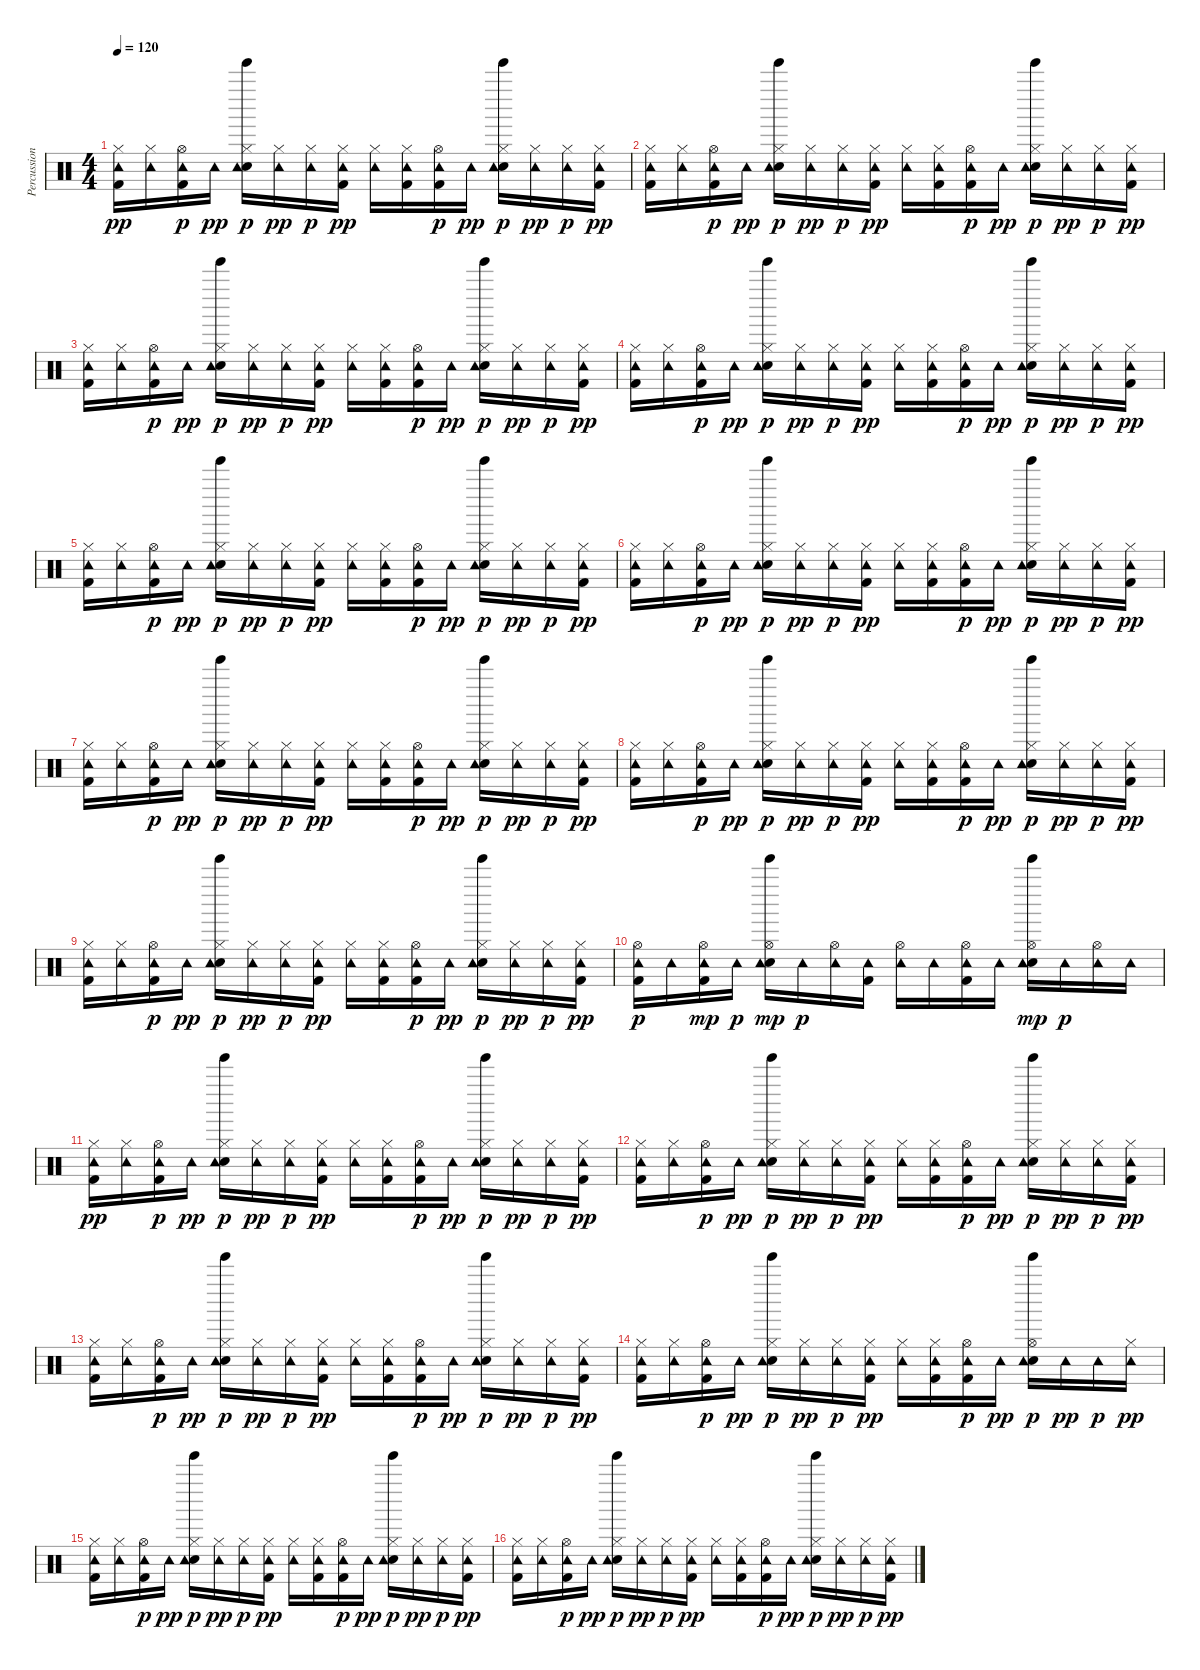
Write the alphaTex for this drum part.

\track ("Percussioni" "Percussion") {instrument percussion}
\staff {score}
\articulation defaults
\ts (4 4)
\tempo 120
\clef neutral
\ks c
("Kick (hit) 2" "Hi-Hat (closed)" "Tambourine (hit)").16{dy pp} ("Hi-Hat (closed)" "Tambourine (hit)").16 ("Kick (hit) 2" "Hi-Hat (open)" "Tambourine (hit)").16{dy p} "Tambourine (hit)".16{dy pp} ("Electric Snare (hit)" "Hi-Hat (closed)" "Tambourine (hit)" "Tinkle Bell (hit)").16{dy p} ("Hi-Hat (closed)" "Tambourine (hit)").16{dy pp} ("Hi-Hat (closed)" "Tambourine (hit)").16{dy p} ("Kick (hit) 2" "Hi-Hat (closed)" "Tambourine (hit)").16{dy pp} ("Hi-Hat (closed)" "Tambourine (hit)").16 ("Kick (hit) 2" "Hi-Hat (closed)" "Tambourine (hit)").16 ("Kick (hit) 2" "Hi-Hat (open)" "Tambourine (hit)").16{dy p} "Tambourine (hit)".16{dy pp} ("Electric Snare (hit)" "Hi-Hat (closed)" "Tambourine (hit)" "Tinkle Bell (hit)").16{dy p} ("Hi-Hat (closed)" "Tambourine (hit)").16{dy pp} ("Hi-Hat (closed)" "Tambourine (hit)").16{dy p} ("Kick (hit) 2" "Hi-Hat (closed)" "Tambourine (hit)").16{dy pp} |
("Kick (hit) 2" "Hi-Hat (closed)" "Tambourine (hit)").16 ("Hi-Hat (closed)" "Tambourine (hit)").16 ("Kick (hit) 2" "Hi-Hat (open)" "Tambourine (hit)").16{dy p} "Tambourine (hit)".16{dy pp} ("Electric Snare (hit)" "Hi-Hat (closed)" "Tambourine (hit)" "Tinkle Bell (hit)").16{dy p} ("Hi-Hat (closed)" "Tambourine (hit)").16{dy pp} ("Hi-Hat (closed)" "Tambourine (hit)").16{dy p} ("Kick (hit) 2" "Hi-Hat (closed)" "Tambourine (hit)").16{dy pp} ("Hi-Hat (closed)" "Tambourine (hit)").16 ("Kick (hit) 2" "Hi-Hat (closed)" "Tambourine (hit)").16 ("Kick (hit) 2" "Hi-Hat (open)" "Tambourine (hit)").16{dy p} "Tambourine (hit)".16{dy pp} ("Electric Snare (hit)" "Hi-Hat (closed)" "Tambourine (hit)" "Tinkle Bell (hit)").16{dy p} ("Hi-Hat (closed)" "Tambourine (hit)").16{dy pp} ("Hi-Hat (closed)" "Tambourine (hit)").16{dy p} ("Kick (hit) 2" "Hi-Hat (closed)" "Tambourine (hit)").16{dy pp} |
("Kick (hit) 2" "Hi-Hat (closed)" "Tambourine (hit)").16 ("Hi-Hat (closed)" "Tambourine (hit)").16 ("Kick (hit) 2" "Hi-Hat (open)" "Tambourine (hit)").16{dy p} "Tambourine (hit)".16{dy pp} ("Electric Snare (hit)" "Hi-Hat (closed)" "Tambourine (hit)" "Tinkle Bell (hit)").16{dy p} ("Hi-Hat (closed)" "Tambourine (hit)").16{dy pp} ("Hi-Hat (closed)" "Tambourine (hit)").16{dy p} ("Kick (hit) 2" "Hi-Hat (closed)" "Tambourine (hit)").16{dy pp} ("Hi-Hat (closed)" "Tambourine (hit)").16 ("Kick (hit) 2" "Hi-Hat (closed)" "Tambourine (hit)").16 ("Kick (hit) 2" "Hi-Hat (open)" "Tambourine (hit)").16{dy p} "Tambourine (hit)".16{dy pp} ("Electric Snare (hit)" "Hi-Hat (closed)" "Tambourine (hit)" "Tinkle Bell (hit)").16{dy p} ("Hi-Hat (closed)" "Tambourine (hit)").16{dy pp} ("Hi-Hat (closed)" "Tambourine (hit)").16{dy p} ("Kick (hit) 2" "Hi-Hat (closed)" "Tambourine (hit)").16{dy pp} |
("Kick (hit) 2" "Hi-Hat (closed)" "Tambourine (hit)").16 ("Hi-Hat (closed)" "Tambourine (hit)").16 ("Kick (hit) 2" "Hi-Hat (open)" "Tambourine (hit)").16{dy p} "Tambourine (hit)".16{dy pp} ("Electric Snare (hit)" "Hi-Hat (closed)" "Tambourine (hit)" "Tinkle Bell (hit)").16{dy p} ("Hi-Hat (closed)" "Tambourine (hit)").16{dy pp} ("Hi-Hat (closed)" "Tambourine (hit)").16{dy p} ("Kick (hit) 2" "Hi-Hat (closed)" "Tambourine (hit)").16{dy pp} ("Hi-Hat (closed)" "Tambourine (hit)").16 ("Kick (hit) 2" "Hi-Hat (closed)" "Tambourine (hit)").16 ("Kick (hit) 2" "Hi-Hat (open)" "Tambourine (hit)").16{dy p} "Tambourine (hit)".16{dy pp} ("Electric Snare (hit)" "Hi-Hat (closed)" "Tambourine (hit)" "Tinkle Bell (hit)").16{dy p} ("Hi-Hat (closed)" "Tambourine (hit)").16{dy pp} ("Hi-Hat (closed)" "Tambourine (hit)").16{dy p} ("Kick (hit) 2" "Hi-Hat (closed)" "Tambourine (hit)").16{dy pp} |
("Kick (hit) 2" "Hi-Hat (closed)" "Tambourine (hit)").16 ("Hi-Hat (closed)" "Tambourine (hit)").16 ("Kick (hit) 2" "Hi-Hat (open)" "Tambourine (hit)").16{dy p} "Tambourine (hit)".16{dy pp} ("Electric Snare (hit)" "Hi-Hat (closed)" "Tambourine (hit)" "Tinkle Bell (hit)").16{dy p} ("Hi-Hat (closed)" "Tambourine (hit)").16{dy pp} ("Hi-Hat (closed)" "Tambourine (hit)").16{dy p} ("Kick (hit) 2" "Hi-Hat (closed)" "Tambourine (hit)").16{dy pp} ("Hi-Hat (closed)" "Tambourine (hit)").16 ("Kick (hit) 2" "Hi-Hat (closed)" "Tambourine (hit)").16 ("Kick (hit) 2" "Hi-Hat (open)" "Tambourine (hit)").16{dy p} "Tambourine (hit)".16{dy pp} ("Electric Snare (hit)" "Hi-Hat (closed)" "Tambourine (hit)" "Tinkle Bell (hit)").16{dy p} ("Hi-Hat (closed)" "Tambourine (hit)").16{dy pp} ("Hi-Hat (closed)" "Tambourine (hit)").16{dy p} ("Kick (hit) 2" "Hi-Hat (closed)" "Tambourine (hit)").16{dy pp} |
("Kick (hit) 2" "Hi-Hat (closed)" "Tambourine (hit)").16 ("Hi-Hat (closed)" "Tambourine (hit)").16 ("Kick (hit) 2" "Hi-Hat (open)" "Tambourine (hit)").16{dy p} "Tambourine (hit)".16{dy pp} ("Electric Snare (hit)" "Hi-Hat (closed)" "Tambourine (hit)" "Tinkle Bell (hit)").16{dy p} ("Hi-Hat (closed)" "Tambourine (hit)").16{dy pp} ("Hi-Hat (closed)" "Tambourine (hit)").16{dy p} ("Kick (hit) 2" "Hi-Hat (closed)" "Tambourine (hit)").16{dy pp} ("Hi-Hat (closed)" "Tambourine (hit)").16 ("Kick (hit) 2" "Hi-Hat (closed)" "Tambourine (hit)").16 ("Kick (hit) 2" "Hi-Hat (open)" "Tambourine (hit)").16{dy p} "Tambourine (hit)".16{dy pp} ("Electric Snare (hit)" "Hi-Hat (closed)" "Tambourine (hit)" "Tinkle Bell (hit)").16{dy p} ("Hi-Hat (closed)" "Tambourine (hit)").16{dy pp} ("Hi-Hat (closed)" "Tambourine (hit)").16{dy p} ("Kick (hit) 2" "Hi-Hat (closed)" "Tambourine (hit)").16{dy pp} |
("Kick (hit) 2" "Hi-Hat (closed)" "Tambourine (hit)").16 ("Hi-Hat (closed)" "Tambourine (hit)").16 ("Kick (hit) 2" "Hi-Hat (open)" "Tambourine (hit)").16{dy p} "Tambourine (hit)".16{dy pp} ("Electric Snare (hit)" "Hi-Hat (closed)" "Tambourine (hit)" "Tinkle Bell (hit)").16{dy p} ("Hi-Hat (closed)" "Tambourine (hit)").16{dy pp} ("Hi-Hat (closed)" "Tambourine (hit)").16{dy p} ("Kick (hit) 2" "Hi-Hat (closed)" "Tambourine (hit)").16{dy pp} ("Hi-Hat (closed)" "Tambourine (hit)").16 ("Kick (hit) 2" "Hi-Hat (closed)" "Tambourine (hit)").16 ("Kick (hit) 2" "Hi-Hat (open)" "Tambourine (hit)").16{dy p} "Tambourine (hit)".16{dy pp} ("Electric Snare (hit)" "Hi-Hat (closed)" "Tambourine (hit)" "Tinkle Bell (hit)").16{dy p} ("Hi-Hat (closed)" "Tambourine (hit)").16{dy pp} ("Hi-Hat (closed)" "Tambourine (hit)").16{dy p} ("Kick (hit) 2" "Hi-Hat (closed)" "Tambourine (hit)").16{dy pp} |
("Kick (hit) 2" "Hi-Hat (closed)" "Tambourine (hit)").16 ("Hi-Hat (closed)" "Tambourine (hit)").16 ("Kick (hit) 2" "Hi-Hat (open)" "Tambourine (hit)").16{dy p} "Tambourine (hit)".16{dy pp} ("Electric Snare (hit)" "Hi-Hat (closed)" "Tambourine (hit)" "Tinkle Bell (hit)").16{dy p} ("Hi-Hat (closed)" "Tambourine (hit)").16{dy pp} ("Hi-Hat (closed)" "Tambourine (hit)").16{dy p} ("Kick (hit) 2" "Hi-Hat (closed)" "Tambourine (hit)").16{dy pp} ("Hi-Hat (closed)" "Tambourine (hit)").16 ("Kick (hit) 2" "Hi-Hat (closed)" "Tambourine (hit)").16 ("Kick (hit) 2" "Hi-Hat (open)" "Tambourine (hit)").16{dy p} "Tambourine (hit)".16{dy pp} ("Electric Snare (hit)" "Hi-Hat (closed)" "Tambourine (hit)" "Tinkle Bell (hit)").16{dy p} ("Hi-Hat (closed)" "Tambourine (hit)").16{dy pp} ("Hi-Hat (closed)" "Tambourine (hit)").16{dy p} ("Kick (hit) 2" "Hi-Hat (closed)" "Tambourine (hit)").16{dy pp} |
("Kick (hit) 2" "Hi-Hat (closed)" "Tambourine (hit)").16 ("Hi-Hat (closed)" "Tambourine (hit)").16 ("Kick (hit) 2" "Hi-Hat (open)" "Tambourine (hit)").16{dy p} "Tambourine (hit)".16{dy pp} ("Electric Snare (hit)" "Hi-Hat (closed)" "Tambourine (hit)" "Tinkle Bell (hit)").16{dy p} ("Hi-Hat (closed)" "Tambourine (hit)").16{dy pp} ("Hi-Hat (closed)" "Tambourine (hit)").16{dy p} ("Kick (hit) 2" "Hi-Hat (closed)" "Tambourine (hit)").16{dy pp} ("Hi-Hat (closed)" "Tambourine (hit)").16 ("Kick (hit) 2" "Hi-Hat (closed)" "Tambourine (hit)").16 ("Kick (hit) 2" "Hi-Hat (open)" "Tambourine (hit)").16{dy p} "Tambourine (hit)".16{dy pp} ("Electric Snare (hit)" "Hi-Hat (closed)" "Tambourine (hit)" "Tinkle Bell (hit)").16{dy p} ("Hi-Hat (closed)" "Tambourine (hit)").16{dy pp} ("Hi-Hat (closed)" "Tambourine (hit)").16{dy p} ("Kick (hit) 2" "Hi-Hat (closed)" "Tambourine (hit)").16{dy pp} |
("Kick (hit) 2" "Hi-Hat (open)" "Tambourine (hit)").16{dy p} "Tambourine (hit)".16 ("Kick (hit) 2" "Hi-Hat (open)" "Tambourine (hit)").16{dy mp} "Tambourine (hit)".16{dy p} ("Electric Snare (hit)" "Hi-Hat (open)" "Tambourine (hit)" "Tinkle Bell (hit)").16{dy mp} "Tambourine (hit)".16{dy p} ("Hi-Hat (open)" "Tambourine (hit)").16 ("Kick (hit) 2" "Tambourine (hit)").16 ("Hi-Hat (open)" "Tambourine (hit)").16 "Tambourine (hit)".16 ("Kick (hit) 2" "Hi-Hat (open)" "Tambourine (hit)").16 "Tambourine (hit)".16 ("Electric Snare (hit)" "Hi-Hat (open)" "Tambourine (hit)" "Tinkle Bell (hit)").16{dy mp} "Tambourine (hit)".16{dy p} ("Hi-Hat (open)" "Tambourine (hit)").16 "Tambourine (hit)".16 |
("Kick (hit) 2" "Hi-Hat (closed)" "Tambourine (hit)").16{dy pp} ("Hi-Hat (closed)" "Tambourine (hit)").16 ("Kick (hit) 2" "Hi-Hat (open)" "Tambourine (hit)").16{dy p} "Tambourine (hit)".16{dy pp} ("Electric Snare (hit)" "Hi-Hat (closed)" "Tambourine (hit)" "Tinkle Bell (hit)").16{dy p} ("Hi-Hat (closed)" "Tambourine (hit)").16{dy pp} ("Hi-Hat (closed)" "Tambourine (hit)").16{dy p} ("Kick (hit) 2" "Hi-Hat (closed)" "Tambourine (hit)").16{dy pp} ("Hi-Hat (closed)" "Tambourine (hit)").16 ("Kick (hit) 2" "Hi-Hat (closed)" "Tambourine (hit)").16 ("Kick (hit) 2" "Hi-Hat (open)" "Tambourine (hit)").16{dy p} "Tambourine (hit)".16{dy pp} ("Electric Snare (hit)" "Hi-Hat (closed)" "Tambourine (hit)" "Tinkle Bell (hit)").16{dy p} ("Hi-Hat (closed)" "Tambourine (hit)").16{dy pp} ("Hi-Hat (closed)" "Tambourine (hit)").16{dy p} ("Kick (hit) 2" "Hi-Hat (closed)" "Tambourine (hit)").16{dy pp} |
("Kick (hit) 2" "Hi-Hat (closed)" "Tambourine (hit)").16 ("Hi-Hat (closed)" "Tambourine (hit)").16 ("Kick (hit) 2" "Hi-Hat (open)" "Tambourine (hit)").16{dy p} "Tambourine (hit)".16{dy pp} ("Electric Snare (hit)" "Hi-Hat (closed)" "Tambourine (hit)" "Tinkle Bell (hit)").16{dy p} ("Hi-Hat (closed)" "Tambourine (hit)").16{dy pp} ("Hi-Hat (closed)" "Tambourine (hit)").16{dy p} ("Kick (hit) 2" "Hi-Hat (closed)" "Tambourine (hit)").16{dy pp} ("Hi-Hat (closed)" "Tambourine (hit)").16 ("Kick (hit) 2" "Hi-Hat (closed)" "Tambourine (hit)").16 ("Kick (hit) 2" "Hi-Hat (open)" "Tambourine (hit)").16{dy p} "Tambourine (hit)".16{dy pp} ("Electric Snare (hit)" "Hi-Hat (closed)" "Tambourine (hit)" "Tinkle Bell (hit)").16{dy p} ("Hi-Hat (closed)" "Tambourine (hit)").16{dy pp} ("Hi-Hat (closed)" "Tambourine (hit)").16{dy p} ("Kick (hit) 2" "Hi-Hat (closed)" "Tambourine (hit)").16{dy pp} |
("Kick (hit) 2" "Hi-Hat (closed)" "Tambourine (hit)").16 ("Hi-Hat (closed)" "Tambourine (hit)").16 ("Kick (hit) 2" "Hi-Hat (open)" "Tambourine (hit)").16{dy p} "Tambourine (hit)".16{dy pp} ("Electric Snare (hit)" "Hi-Hat (closed)" "Tambourine (hit)" "Tinkle Bell (hit)").16{dy p} ("Hi-Hat (closed)" "Tambourine (hit)").16{dy pp} ("Hi-Hat (closed)" "Tambourine (hit)").16{dy p} ("Kick (hit) 2" "Hi-Hat (closed)" "Tambourine (hit)").16{dy pp} ("Hi-Hat (closed)" "Tambourine (hit)").16 ("Kick (hit) 2" "Hi-Hat (closed)" "Tambourine (hit)").16 ("Kick (hit) 2" "Hi-Hat (open)" "Tambourine (hit)").16{dy p} "Tambourine (hit)".16{dy pp} ("Electric Snare (hit)" "Hi-Hat (closed)" "Tambourine (hit)" "Tinkle Bell (hit)").16{dy p} ("Hi-Hat (closed)" "Tambourine (hit)").16{dy pp} ("Hi-Hat (closed)" "Tambourine (hit)").16{dy p} ("Kick (hit) 2" "Hi-Hat (closed)" "Tambourine (hit)").16{dy pp} |
("Kick (hit) 2" "Hi-Hat (closed)" "Tambourine (hit)").16 ("Hi-Hat (closed)" "Tambourine (hit)").16 ("Kick (hit) 2" "Hi-Hat (open)" "Tambourine (hit)").16{dy p} "Tambourine (hit)".16{dy pp} ("Electric Snare (hit)" "Hi-Hat (closed)" "Tambourine (hit)" "Tinkle Bell (hit)").16{dy p} ("Hi-Hat (closed)" "Tambourine (hit)").16{dy pp} ("Hi-Hat (closed)" "Tambourine (hit)").16{dy p} ("Kick (hit) 2" "Hi-Hat (closed)" "Tambourine (hit)").16{dy pp} ("Hi-Hat (closed)" "Tambourine (hit)").16 ("Kick (hit) 2" "Hi-Hat (closed)" "Tambourine (hit)").16 ("Kick (hit) 2" "Hi-Hat (open)" "Tambourine (hit)").16{dy p} "Tambourine (hit)".16{dy pp} ("Electric Snare (hit)" "Hi-Hat (open)" "Tambourine (hit)" "Tinkle Bell (hit)").16{dy p} "Tambourine (hit)".16{dy pp} "Tambourine (hit)".16{dy p} ("Hi-Hat (closed)" "Tambourine (hit)").16{dy pp} |
("Kick (hit) 2" "Hi-Hat (closed)" "Tambourine (hit)").16 ("Hi-Hat (closed)" "Tambourine (hit)").16 ("Kick (hit) 2" "Hi-Hat (open)" "Tambourine (hit)").16{dy p} "Tambourine (hit)".16{dy pp} ("Electric Snare (hit)" "Hi-Hat (closed)" "Tambourine (hit)" "Tinkle Bell (hit)").16{dy p} ("Hi-Hat (closed)" "Tambourine (hit)").16{dy pp} ("Hi-Hat (closed)" "Tambourine (hit)").16{dy p} ("Kick (hit) 2" "Hi-Hat (closed)" "Tambourine (hit)").16{dy pp} ("Hi-Hat (closed)" "Tambourine (hit)").16 ("Kick (hit) 2" "Hi-Hat (closed)" "Tambourine (hit)").16 ("Kick (hit) 2" "Hi-Hat (open)" "Tambourine (hit)").16{dy p} "Tambourine (hit)".16{dy pp} ("Electric Snare (hit)" "Hi-Hat (closed)" "Tambourine (hit)" "Tinkle Bell (hit)").16{dy p} ("Hi-Hat (closed)" "Tambourine (hit)").16{dy pp} ("Hi-Hat (closed)" "Tambourine (hit)").16{dy p} ("Kick (hit) 2" "Hi-Hat (closed)" "Tambourine (hit)").16{dy pp} |
("Kick (hit) 2" "Hi-Hat (closed)" "Tambourine (hit)").16 ("Hi-Hat (closed)" "Tambourine (hit)").16 ("Kick (hit) 2" "Hi-Hat (open)" "Tambourine (hit)").16{dy p} "Tambourine (hit)".16{dy pp} ("Electric Snare (hit)" "Hi-Hat (closed)" "Tambourine (hit)" "Tinkle Bell (hit)").16{dy p} ("Hi-Hat (closed)" "Tambourine (hit)").16{dy pp} ("Hi-Hat (closed)" "Tambourine (hit)").16{dy p} ("Kick (hit) 2" "Hi-Hat (closed)" "Tambourine (hit)").16{dy pp} ("Hi-Hat (closed)" "Tambourine (hit)").16 ("Kick (hit) 2" "Hi-Hat (closed)" "Tambourine (hit)").16 ("Kick (hit) 2" "Hi-Hat (open)" "Tambourine (hit)").16{dy p} "Tambourine (hit)".16{dy pp} ("Electric Snare (hit)" "Hi-Hat (closed)" "Tambourine (hit)" "Tinkle Bell (hit)").16{dy p} ("Hi-Hat (closed)" "Tambourine (hit)").16{dy pp} ("Hi-Hat (closed)" "Tambourine (hit)").16{dy p} ("Kick (hit) 2" "Hi-Hat (closed)" "Tambourine (hit)").16{dy pp}
